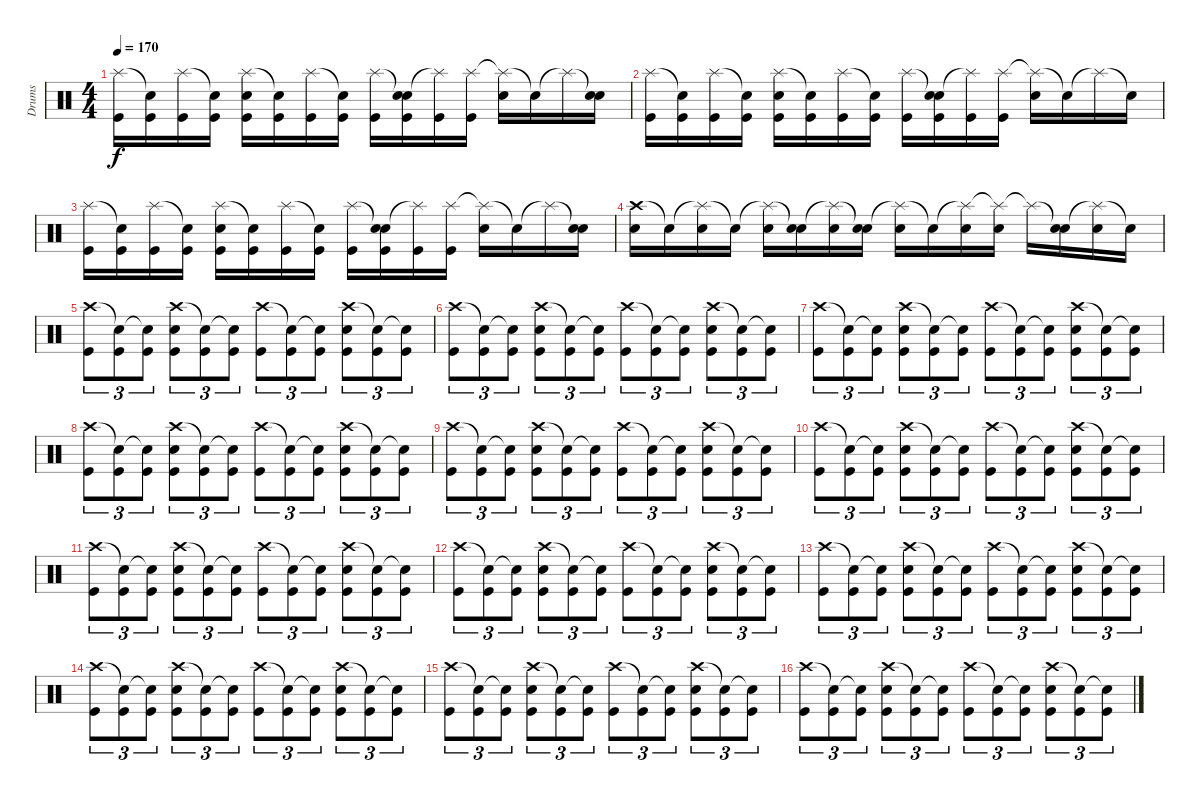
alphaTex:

\track ("Drums" "Drums") {instrument percussion}
\staff {score}
\articulation defaults
\ts (4 4)
\tempo 170
\clef neutral
\ks c
("Splash (hit)" "Kick (hit)").16{dy f} ("Snare (hit)"{t} "Kick (hit)").16 ("Splash (hit)" "Kick (hit)").16 ("Snare (hit)"{t} "Kick (hit)").16 ("Splash (hit)" "Electric Snare (hit)" "Kick (hit)").16 ("Snare (hit)"{t} "Kick (hit)").16 ("Splash (hit)" "Kick (hit)").16 ("Snare (hit)"{t} "Kick (hit)").16 ("Splash (hit)" "Kick (hit)").16 ("Snare (hit)"{t} "Electric Snare (hit)" "Kick (hit)").16 ("Splash (hit)"{t} "Kick (hit)").16 ("Splash (hit)" "Kick (hit)").16 ("Splash (hit)"{t} "Electric Snare (hit)").16 "Snare (hit)"{t}.16 "Splash (hit)"{t}.16 ("Snare (hit)"{t} "Electric Snare (hit)").16 |
("Splash (hit)" "Kick (hit)").16 ("Snare (hit)"{t} "Kick (hit)").16 ("Splash (hit)" "Kick (hit)").16 ("Snare (hit)"{t} "Kick (hit)").16 ("Splash (hit)" "Electric Snare (hit)" "Kick (hit)").16 ("Snare (hit)"{t} "Kick (hit)").16 ("Splash (hit)" "Kick (hit)").16 ("Snare (hit)"{t} "Kick (hit)").16 ("Splash (hit)" "Kick (hit)").16 ("Snare (hit)"{t} "Electric Snare (hit)" "Kick (hit)").16 ("Splash (hit)"{t} "Kick (hit)").16 ("Splash (hit)" "Kick (hit)").16 ("Splash (hit)"{t} "Electric Snare (hit)").16 "Snare (hit)"{t}.16 "Splash (hit)"{t}.16 "Snare (hit)"{t}.16 |
("Splash (hit)" "Kick (hit)").16 ("Snare (hit)"{t} "Kick (hit)").16 ("Splash (hit)" "Kick (hit)").16 ("Snare (hit)"{t} "Kick (hit)").16 ("Splash (hit)" "Electric Snare (hit)" "Kick (hit)").16 ("Snare (hit)"{t} "Kick (hit)").16 ("Splash (hit)" "Kick (hit)").16 ("Snare (hit)"{t} "Kick (hit)").16 ("Splash (hit)" "Kick (hit)").16 ("Snare (hit)"{t} "Electric Snare (hit)" "Kick (hit)").16 ("Splash (hit)"{t} "Kick (hit)").16 ("Splash (hit)" "Kick (hit)").16 ("Splash (hit)"{t} "Electric Snare (hit)").16 "Snare (hit)"{t}.16 "Splash (hit)"{t}.16 ("Snare (hit)"{t} "Electric Snare (hit)").16 |
("Crash high (hit)" "Electric Snare (hit)").16 "Snare (hit)"{t}.16 ("Splash (hit)"{t} "Electric Snare (hit)").16 "Snare (hit)"{t}.16 ("Splash (hit)"{t} "Electric Snare (hit)").16 ("Snare (hit)"{t} "Electric Snare (hit)").16 ("Splash (hit)"{t} "Electric Snare (hit)").16 ("Snare (hit)"{t} "Electric Snare (hit)").16 ("Splash (hit)"{t} "Electric Snare (hit)").16 "Snare (hit)"{t}.16 ("Splash (hit)"{t} "Electric Snare (hit)").16 ("Splash (hit)"{t} "Electric Snare (hit)").16 "Splash (hit)"{t}.16 ("Snare (hit)"{t} "Electric Snare (hit)").16 ("Splash (hit)"{t} "Electric Snare (hit)").16 "Snare (hit)"{t}.16 |
("Crash high (hit)" "Kick (hit)").8{tu (3 2)} ("Snare (hit)"{t} "Kick (hit)").8{tu (3 2)} ("Snare (hit)"{t} "Kick (hit)").8{tu (3 2)} ("Crash high (hit)" "Electric Snare (hit)" "Kick (hit)").8{tu (3 2)} ("Snare (hit)"{t} "Kick (hit)").8{tu (3 2)} ("Snare (hit)"{t} "Kick (hit)").8{tu (3 2)} ("Crash high (hit)" "Kick (hit)").8{tu (3 2)} ("Snare (hit)"{t} "Kick (hit)").8{tu (3 2)} ("Snare (hit)"{t} "Kick (hit)").8{tu (3 2)} ("Crash high (hit)" "Electric Snare (hit)" "Kick (hit)").8{tu (3 2)} ("Snare (hit)"{t} "Kick (hit)").8{tu (3 2)} ("Snare (hit)"{t} "Kick (hit)").8{tu (3 2)} |
("Crash high (hit)" "Kick (hit)").8{tu (3 2)} ("Snare (hit)"{t} "Kick (hit)").8{tu (3 2)} ("Snare (hit)"{t} "Kick (hit)").8{tu (3 2)} ("Crash high (hit)" "Electric Snare (hit)" "Kick (hit)").8{tu (3 2)} ("Snare (hit)"{t} "Kick (hit)").8{tu (3 2)} ("Snare (hit)"{t} "Kick (hit)").8{tu (3 2)} ("Crash high (hit)" "Kick (hit)").8{tu (3 2)} ("Snare (hit)"{t} "Kick (hit)").8{tu (3 2)} ("Snare (hit)"{t} "Kick (hit)").8{tu (3 2)} ("Crash high (hit)" "Electric Snare (hit)" "Kick (hit)").8{tu (3 2)} ("Snare (hit)"{t} "Kick (hit)").8{tu (3 2)} ("Snare (hit)"{t} "Kick (hit)").8{tu (3 2)} |
("Crash high (hit)" "Kick (hit)").8{tu (3 2)} ("Snare (hit)"{t} "Kick (hit)").8{tu (3 2)} ("Snare (hit)"{t} "Kick (hit)").8{tu (3 2)} ("Crash high (hit)" "Electric Snare (hit)" "Kick (hit)").8{tu (3 2)} ("Snare (hit)"{t} "Kick (hit)").8{tu (3 2)} ("Snare (hit)"{t} "Kick (hit)").8{tu (3 2)} ("Crash high (hit)" "Kick (hit)").8{tu (3 2)} ("Snare (hit)"{t} "Kick (hit)").8{tu (3 2)} ("Snare (hit)"{t} "Kick (hit)").8{tu (3 2)} ("Crash high (hit)" "Electric Snare (hit)" "Kick (hit)").8{tu (3 2)} ("Snare (hit)"{t} "Kick (hit)").8{tu (3 2)} ("Snare (hit)"{t} "Kick (hit)").8{tu (3 2)} |
("Crash high (hit)" "Kick (hit)").8{tu (3 2)} ("Snare (hit)"{t} "Kick (hit)").8{tu (3 2)} ("Snare (hit)"{t} "Kick (hit)").8{tu (3 2)} ("Crash high (hit)" "Electric Snare (hit)" "Kick (hit)").8{tu (3 2)} ("Snare (hit)"{t} "Kick (hit)").8{tu (3 2)} ("Snare (hit)"{t} "Kick (hit)").8{tu (3 2)} ("Crash high (hit)" "Kick (hit)").8{tu (3 2)} ("Snare (hit)"{t} "Kick (hit)").8{tu (3 2)} ("Snare (hit)"{t} "Kick (hit)").8{tu (3 2)} ("Crash high (hit)" "Electric Snare (hit)" "Kick (hit)").8{tu (3 2)} ("Snare (hit)"{t} "Kick (hit)").8{tu (3 2)} ("Snare (hit)"{t} "Kick (hit)").8{tu (3 2)} |
("Crash high (hit)" "Kick (hit)").8{tu (3 2)} ("Snare (hit)"{t} "Kick (hit)").8{tu (3 2)} ("Snare (hit)"{t} "Kick (hit)").8{tu (3 2)} ("Crash high (hit)" "Electric Snare (hit)" "Kick (hit)").8{tu (3 2)} ("Snare (hit)"{t} "Kick (hit)").8{tu (3 2)} ("Snare (hit)"{t} "Kick (hit)").8{tu (3 2)} ("Crash high (hit)" "Kick (hit)").8{tu (3 2)} ("Snare (hit)"{t} "Kick (hit)").8{tu (3 2)} ("Snare (hit)"{t} "Kick (hit)").8{tu (3 2)} ("Crash high (hit)" "Electric Snare (hit)" "Kick (hit)").8{tu (3 2)} ("Snare (hit)"{t} "Kick (hit)").8{tu (3 2)} ("Snare (hit)"{t} "Kick (hit)").8{tu (3 2)} |
("Crash high (hit)" "Kick (hit)").8{tu (3 2)} ("Snare (hit)"{t} "Kick (hit)").8{tu (3 2)} ("Snare (hit)"{t} "Kick (hit)").8{tu (3 2)} ("Crash high (hit)" "Electric Snare (hit)" "Kick (hit)").8{tu (3 2)} ("Snare (hit)"{t} "Kick (hit)").8{tu (3 2)} ("Snare (hit)"{t} "Kick (hit)").8{tu (3 2)} ("Crash high (hit)" "Kick (hit)").8{tu (3 2)} ("Snare (hit)"{t} "Kick (hit)").8{tu (3 2)} ("Snare (hit)"{t} "Kick (hit)").8{tu (3 2)} ("Crash high (hit)" "Electric Snare (hit)" "Kick (hit)").8{tu (3 2)} ("Snare (hit)"{t} "Kick (hit)").8{tu (3 2)} ("Snare (hit)"{t} "Kick (hit)").8{tu (3 2)} |
("Crash high (hit)" "Kick (hit)").8{tu (3 2)} ("Snare (hit)"{t} "Kick (hit)").8{tu (3 2)} ("Snare (hit)"{t} "Kick (hit)").8{tu (3 2)} ("Crash high (hit)" "Electric Snare (hit)" "Kick (hit)").8{tu (3 2)} ("Snare (hit)"{t} "Kick (hit)").8{tu (3 2)} ("Snare (hit)"{t} "Kick (hit)").8{tu (3 2)} ("Crash high (hit)" "Kick (hit)").8{tu (3 2)} ("Snare (hit)"{t} "Kick (hit)").8{tu (3 2)} ("Snare (hit)"{t} "Kick (hit)").8{tu (3 2)} ("Crash high (hit)" "Electric Snare (hit)" "Kick (hit)").8{tu (3 2)} ("Snare (hit)"{t} "Kick (hit)").8{tu (3 2)} ("Snare (hit)"{t} "Kick (hit)").8{tu (3 2)} |
("Crash high (hit)" "Kick (hit)").8{tu (3 2)} ("Snare (hit)"{t} "Kick (hit)").8{tu (3 2)} ("Snare (hit)"{t} "Kick (hit)").8{tu (3 2)} ("Crash high (hit)" "Electric Snare (hit)" "Kick (hit)").8{tu (3 2)} ("Snare (hit)"{t} "Kick (hit)").8{tu (3 2)} ("Snare (hit)"{t} "Kick (hit)").8{tu (3 2)} ("Crash high (hit)" "Kick (hit)").8{tu (3 2)} ("Snare (hit)"{t} "Kick (hit)").8{tu (3 2)} ("Snare (hit)"{t} "Kick (hit)").8{tu (3 2)} ("Crash high (hit)" "Electric Snare (hit)" "Kick (hit)").8{tu (3 2)} ("Snare (hit)"{t} "Kick (hit)").8{tu (3 2)} ("Snare (hit)"{t} "Kick (hit)").8{tu (3 2)} |
("Crash high (hit)" "Kick (hit)").8{tu (3 2)} ("Snare (hit)"{t} "Kick (hit)").8{tu (3 2)} ("Snare (hit)"{t} "Kick (hit)").8{tu (3 2)} ("Crash high (hit)" "Electric Snare (hit)" "Kick (hit)").8{tu (3 2)} ("Snare (hit)"{t} "Kick (hit)").8{tu (3 2)} ("Snare (hit)"{t} "Kick (hit)").8{tu (3 2)} ("Crash high (hit)" "Kick (hit)").8{tu (3 2)} ("Snare (hit)"{t} "Kick (hit)").8{tu (3 2)} ("Snare (hit)"{t} "Kick (hit)").8{tu (3 2)} ("Crash high (hit)" "Electric Snare (hit)" "Kick (hit)").8{tu (3 2)} ("Snare (hit)"{t} "Kick (hit)").8{tu (3 2)} ("Snare (hit)"{t} "Kick (hit)").8{tu (3 2)} |
("Crash high (hit)" "Kick (hit)").8{tu (3 2)} ("Snare (hit)"{t} "Kick (hit)").8{tu (3 2)} ("Snare (hit)"{t} "Kick (hit)").8{tu (3 2)} ("Crash high (hit)" "Electric Snare (hit)" "Kick (hit)").8{tu (3 2)} ("Snare (hit)"{t} "Kick (hit)").8{tu (3 2)} ("Snare (hit)"{t} "Kick (hit)").8{tu (3 2)} ("Crash high (hit)" "Kick (hit)").8{tu (3 2)} ("Snare (hit)"{t} "Kick (hit)").8{tu (3 2)} ("Snare (hit)"{t} "Kick (hit)").8{tu (3 2)} ("Crash high (hit)" "Electric Snare (hit)" "Kick (hit)").8{tu (3 2)} ("Snare (hit)"{t} "Kick (hit)").8{tu (3 2)} ("Snare (hit)"{t} "Kick (hit)").8{tu (3 2)} |
("Crash high (hit)" "Kick (hit)").8{tu (3 2)} ("Snare (hit)"{t} "Kick (hit)").8{tu (3 2)} ("Snare (hit)"{t} "Kick (hit)").8{tu (3 2)} ("Crash high (hit)" "Electric Snare (hit)" "Kick (hit)").8{tu (3 2)} ("Snare (hit)"{t} "Kick (hit)").8{tu (3 2)} ("Snare (hit)"{t} "Kick (hit)").8{tu (3 2)} ("Crash high (hit)" "Kick (hit)").8{tu (3 2)} ("Snare (hit)"{t} "Kick (hit)").8{tu (3 2)} ("Snare (hit)"{t} "Kick (hit)").8{tu (3 2)} ("Crash high (hit)" "Electric Snare (hit)" "Kick (hit)").8{tu (3 2)} ("Snare (hit)"{t} "Kick (hit)").8{tu (3 2)} ("Snare (hit)"{t} "Kick (hit)").8{tu (3 2)} |
("Crash high (hit)" "Kick (hit)").8{tu (3 2)} ("Snare (hit)"{t} "Kick (hit)").8{tu (3 2)} ("Snare (hit)"{t} "Kick (hit)").8{tu (3 2)} ("Crash high (hit)" "Electric Snare (hit)" "Kick (hit)").8{tu (3 2)} ("Snare (hit)"{t} "Kick (hit)").8{tu (3 2)} ("Snare (hit)"{t} "Kick (hit)").8{tu (3 2)} ("Crash high (hit)" "Kick (hit)").8{tu (3 2)} ("Snare (hit)"{t} "Kick (hit)").8{tu (3 2)} ("Snare (hit)"{t} "Kick (hit)").8{tu (3 2)} ("Crash high (hit)" "Electric Snare (hit)" "Kick (hit)").8{tu (3 2)} ("Snare (hit)"{t} "Kick (hit)").8{tu (3 2)} ("Snare (hit)"{t} "Kick (hit)").8{tu (3 2)}
